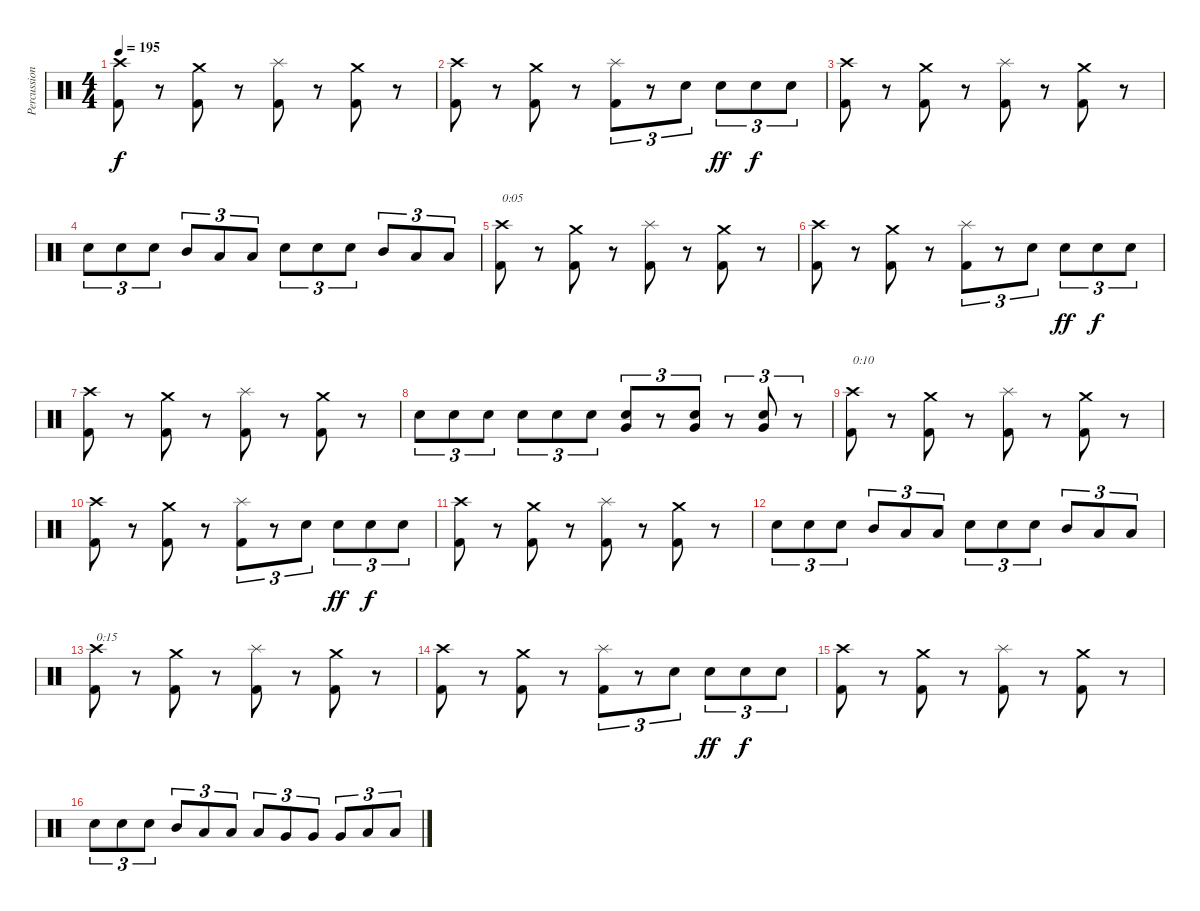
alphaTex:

\track ("Percussion" "Percussion") {instrument percussion}
\staff {score}
\articulation defaults
\ts (4 4)
\tempo 195
\clef neutral
\ks c
("Crash high (hit)" "Kick (hit) 2").8{dy f} r.8 ("Crash medium (hit)" "Kick (hit) 2").8 r.8 ("Splash (hit)" "Kick (hit) 2").8 r.8 ("Crash medium (hit)" "Kick (hit) 2").8 r.8 |
("Crash high (hit)" "Kick (hit) 2").8 r.8 ("Crash medium (hit)" "Kick (hit) 2").8 r.8 ("Splash (hit)" "Kick (hit) 2").8{tu (3 2)} r.8{tu (3 2)} "Snare (hit) 2".8{tu (3 2)} "Snare (hit) 2".8{tu (3 2) dy ff} "Snare (hit) 2".8{tu (3 2) dy f} "Snare (hit) 2".8{tu (3 2)} |
("Crash high (hit)" "Kick (hit) 2").8 r.8 ("Crash medium (hit)" "Kick (hit) 2").8 r.8 ("Splash (hit)" "Kick (hit) 2").8 r.8 ("Crash medium (hit)" "Kick (hit) 2").8 r.8 |
"Snare (hit) 2".8{tu (3 2)} "Snare (hit) 2".8{tu (3 2)} "Snare (hit) 2".8{tu (3 2)} "Mid Tom (hit)".8{tu (3 2)} "Low Tom (hit)".8{tu (3 2)} "Low Tom (hit)".8{tu (3 2)} "Snare (hit) 2".8{tu (3 2)} "Snare (hit) 2".8{tu (3 2)} "Snare (hit) 2".8{tu (3 2)} "Mid Tom (hit)".8{tu (3 2)} "Low Tom (hit)".8{tu (3 2)} "Low Tom (hit)".8{tu (3 2)} |
("Crash high (hit)" "Kick (hit) 2").8{txt "0:05"} r.8 ("Crash medium (hit)" "Kick (hit) 2").8 r.8 ("Splash (hit)" "Kick (hit) 2").8 r.8 ("Crash medium (hit)" "Kick (hit) 2").8 r.8 |
("Crash high (hit)" "Kick (hit) 2").8 r.8 ("Crash medium (hit)" "Kick (hit) 2").8 r.8 ("Splash (hit)" "Kick (hit) 2").8{tu (3 2)} r.8{tu (3 2)} "Snare (hit) 2".8{tu (3 2)} "Snare (hit) 2".8{tu (3 2) dy ff} "Snare (hit) 2".8{tu (3 2) dy f} "Snare (hit) 2".8{tu (3 2)} |
("Crash high (hit)" "Kick (hit) 2").8 r.8 ("Crash medium (hit)" "Kick (hit) 2").8 r.8 ("Splash (hit)" "Kick (hit) 2").8 r.8 ("Crash medium (hit)" "Kick (hit) 2").8 r.8 |
"Snare (hit) 2".8{tu (3 2)} "Snare (hit) 2".8{tu (3 2)} "Snare (hit) 2".8{tu (3 2)} "Snare (hit) 2".8{tu (3 2)} "Snare (hit) 2".8{tu (3 2)} "Snare (hit) 2".8{tu (3 2)} ("Very Low Tom (hit)" "Snare (hit) 2").8{tu (3 2)} r.8{tu (3 2)} ("Very Low Tom (hit)" "Snare (hit) 2").8{tu (3 2)} r.8{tu (3 2)} ("Very Low Tom (hit)" "Snare (hit) 2").8{tu (3 2)} r.8{tu (3 2)} |
("Crash high (hit)" "Kick (hit) 2").8{txt "0:10"} r.8 ("Crash medium (hit)" "Kick (hit) 2").8 r.8 ("Splash (hit)" "Kick (hit) 2").8 r.8 ("Crash medium (hit)" "Kick (hit) 2").8 r.8 |
("Crash high (hit)" "Kick (hit) 2").8 r.8 ("Crash medium (hit)" "Kick (hit) 2").8 r.8 ("Splash (hit)" "Kick (hit) 2").8{tu (3 2)} r.8{tu (3 2)} "Snare (hit) 2".8{tu (3 2)} "Snare (hit) 2".8{tu (3 2) dy ff} "Snare (hit) 2".8{tu (3 2) dy f} "Snare (hit) 2".8{tu (3 2)} |
("Crash high (hit)" "Kick (hit) 2").8 r.8 ("Crash medium (hit)" "Kick (hit) 2").8 r.8 ("Splash (hit)" "Kick (hit) 2").8 r.8 ("Crash medium (hit)" "Kick (hit) 2").8 r.8 |
"Snare (hit) 2".8{tu (3 2)} "Snare (hit) 2".8{tu (3 2)} "Snare (hit) 2".8{tu (3 2)} "Mid Tom (hit)".8{tu (3 2)} "Low Tom (hit)".8{tu (3 2)} "Low Tom (hit)".8{tu (3 2)} "Snare (hit) 2".8{tu (3 2)} "Snare (hit) 2".8{tu (3 2)} "Snare (hit) 2".8{tu (3 2)} "Mid Tom (hit)".8{tu (3 2)} "Low Tom (hit)".8{tu (3 2)} "Low Tom (hit)".8{tu (3 2)} |
("Crash high (hit)" "Kick (hit) 2").8{txt "0:15"} r.8 ("Crash medium (hit)" "Kick (hit) 2").8 r.8 ("Splash (hit)" "Kick (hit) 2").8 r.8 ("Crash medium (hit)" "Kick (hit) 2").8 r.8 |
("Crash high (hit)" "Kick (hit) 2").8 r.8 ("Crash medium (hit)" "Kick (hit) 2").8 r.8 ("Splash (hit)" "Kick (hit) 2").8{tu (3 2)} r.8{tu (3 2)} "Snare (hit) 2".8{tu (3 2)} "Snare (hit) 2".8{tu (3 2) dy ff} "Snare (hit) 2".8{tu (3 2) dy f} "Snare (hit) 2".8{tu (3 2)} |
("Crash high (hit)" "Kick (hit) 2").8 r.8 ("Crash medium (hit)" "Kick (hit) 2").8 r.8 ("Splash (hit)" "Kick (hit) 2").8 r.8 ("Crash medium (hit)" "Kick (hit) 2").8 r.8 |
"Snare (hit) 2".8{tu (3 2)} "Snare (hit) 2".8{tu (3 2)} "Snare (hit) 2".8{tu (3 2)} "Mid Tom (hit)".8{tu (3 2)} "Low Tom (hit)".8{tu (3 2)} "Low Tom (hit)".8{tu (3 2)} "Low Tom (hit)".8{tu (3 2)} "Very Low Tom (hit)".8{tu (3 2)} "Very Low Tom (hit)".8{tu (3 2)} "Very Low Tom (hit)".8{tu (3 2)} "Low Floor Tom (hit)".8{tu (3 2)} "Low Floor Tom (hit)".8{tu (3 2)}
